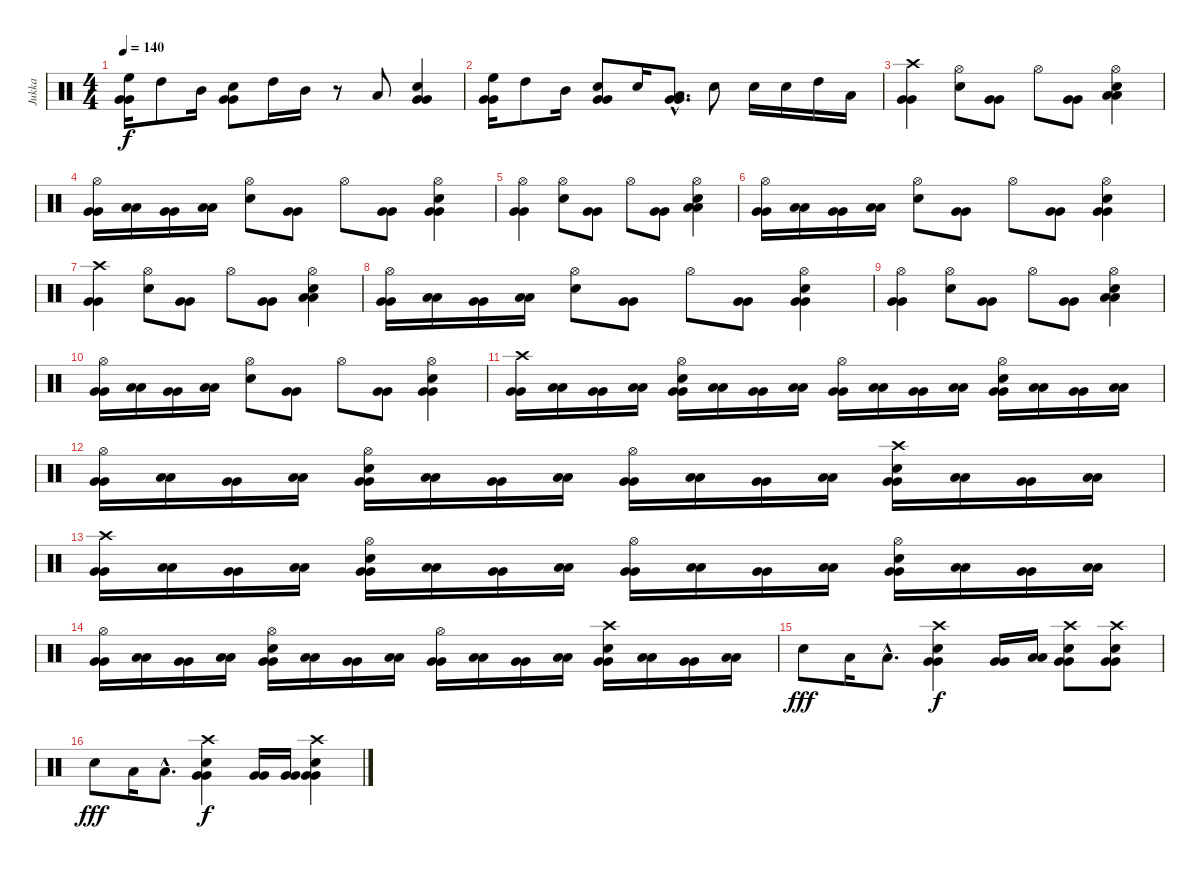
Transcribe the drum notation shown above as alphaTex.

\track ("Jukka" "Jukka") {instrument percussion}
\staff {score}
\articulation defaults
\ts (4 4)
\tempo 140
\clef neutral
\ks c
("High Floor Tom (hit)" "Very Low Tom (hit)" "Very Low Tom (hit)").16{dy f} "High Tom (hit)".8 "Mid Tom (hit)".16 ("Electric Snare (hit)" "Very Low Tom (hit)" "Very Low Tom (hit)").8 "High Tom (hit)".16 "Mid Tom (hit)".16 r.8 "Low Tom (hit)".8 ("Electric Snare (hit)" "Very Low Tom (hit)" "Very Low Tom (hit)").4 |
("High Floor Tom (hit)" "Very Low Tom (hit)" "Very Low Tom (hit)").16 "High Tom (hit)".8 "Mid Tom (hit)".16 ("Electric Snare (hit)" "Very Low Tom (hit)" "Very Low Tom (hit)").8 "Electric Snare (hit)".16 ("Low Tom (hit)"{hac} "Very Low Tom (hit)"{hac} "Very Low Tom (hit)"{hac}).8{d} "Electric Snare (hit)".8 "Electric Snare (hit)".16 "Electric Snare (hit)".16 "High Tom (hit)".16 "Low Tom (hit)".16 |
("Crash high (hit)" "Very Low Tom (hit)" "Very Low Tom (hit)").4 ("Hi-Hat (open)" "Electric Snare (hit)").8 ("Very Low Tom (hit)" "Very Low Tom (hit)").8 "Hi-Hat (open)".8 ("Very Low Tom (hit)" "Very Low Tom (hit)").8 ("Hi-Hat (open)" "Electric Snare (hit)" "Low Floor Tom (hit)" "Low Floor Tom (hit)").4 |
("Hi-Hat (open)" "Very Low Tom (hit)" "Very Low Tom (hit)").16 ("Low Floor Tom (hit)" "Low Floor Tom (hit)").16 ("Very Low Tom (hit)" "Very Low Tom (hit)").16 ("Low Floor Tom (hit)" "Low Floor Tom (hit)").16 ("Hi-Hat (open)" "Electric Snare (hit)").8 ("Very Low Tom (hit)" "Very Low Tom (hit)").8 "Hi-Hat (open)".8 ("Very Low Tom (hit)" "Very Low Tom (hit)").8 ("Hi-Hat (open)" "Electric Snare (hit)" "Very Low Tom (hit)" "Very Low Tom (hit)").4 |
("Hi-Hat (open)" "Very Low Tom (hit)" "Very Low Tom (hit)").4 ("Hi-Hat (open)" "Electric Snare (hit)").8 ("Very Low Tom (hit)" "Very Low Tom (hit)").8 "Hi-Hat (open)".8 ("Very Low Tom (hit)" "Very Low Tom (hit)").8 ("Hi-Hat (open)" "Electric Snare (hit)" "Low Floor Tom (hit)" "Low Floor Tom (hit)").4 |
("Hi-Hat (open)" "Very Low Tom (hit)" "Very Low Tom (hit)").16 ("Low Floor Tom (hit)" "Low Floor Tom (hit)").16 ("Very Low Tom (hit)" "Very Low Tom (hit)").16 ("Low Floor Tom (hit)" "Low Floor Tom (hit)").16 ("Hi-Hat (open)" "Electric Snare (hit)").8 ("Very Low Tom (hit)" "Very Low Tom (hit)").8 "Hi-Hat (open)".8 ("Very Low Tom (hit)" "Very Low Tom (hit)").8 ("Hi-Hat (open)" "Electric Snare (hit)" "Very Low Tom (hit)" "Very Low Tom (hit)").4 |
("Crash high (hit)" "Very Low Tom (hit)" "Very Low Tom (hit)").4 ("Hi-Hat (open)" "Electric Snare (hit)").8 ("Very Low Tom (hit)" "Very Low Tom (hit)").8 "Hi-Hat (open)".8 ("Very Low Tom (hit)" "Very Low Tom (hit)").8 ("Hi-Hat (open)" "Electric Snare (hit)" "Low Floor Tom (hit)" "Low Floor Tom (hit)").4 |
("Hi-Hat (open)" "Very Low Tom (hit)" "Very Low Tom (hit)").16 ("Low Floor Tom (hit)" "Low Floor Tom (hit)").16 ("Very Low Tom (hit)" "Very Low Tom (hit)").16 ("Low Floor Tom (hit)" "Low Floor Tom (hit)").16 ("Hi-Hat (open)" "Electric Snare (hit)").8 ("Very Low Tom (hit)" "Very Low Tom (hit)").8 "Hi-Hat (open)".8 ("Very Low Tom (hit)" "Very Low Tom (hit)").8 ("Hi-Hat (open)" "Electric Snare (hit)" "Very Low Tom (hit)" "Very Low Tom (hit)").4 |
("Hi-Hat (open)" "Very Low Tom (hit)" "Very Low Tom (hit)").4 ("Hi-Hat (open)" "Electric Snare (hit)").8 ("Very Low Tom (hit)" "Very Low Tom (hit)").8 "Hi-Hat (open)".8 ("Very Low Tom (hit)" "Very Low Tom (hit)").8 ("Hi-Hat (open)" "Electric Snare (hit)" "Low Floor Tom (hit)" "Low Floor Tom (hit)").4 |
("Hi-Hat (open)" "Very Low Tom (hit)" "Very Low Tom (hit)").16 ("Low Floor Tom (hit)" "Low Floor Tom (hit)").16 ("Very Low Tom (hit)" "Very Low Tom (hit)").16 ("Low Floor Tom (hit)" "Low Floor Tom (hit)").16 ("Hi-Hat (open)" "Electric Snare (hit)").8 ("Very Low Tom (hit)" "Very Low Tom (hit)").8 "Hi-Hat (open)".8 ("Very Low Tom (hit)" "Very Low Tom (hit)").8 ("Hi-Hat (open)" "Electric Snare (hit)" "Very Low Tom (hit)" "Very Low Tom (hit)").4 |
("Crash high (hit)" "Very Low Tom (hit)" "Very Low Tom (hit)").16 ("Low Floor Tom (hit)" "Low Floor Tom (hit)").16 ("Very Low Tom (hit)" "Very Low Tom (hit)").16 ("Low Floor Tom (hit)" "Low Floor Tom (hit)").16 ("Hi-Hat (open)" "Electric Snare (hit)" "Very Low Tom (hit)" "Very Low Tom (hit)").16 ("Low Floor Tom (hit)" "Low Floor Tom (hit)").16 ("Very Low Tom (hit)" "Very Low Tom (hit)").16 ("Low Floor Tom (hit)" "Low Floor Tom (hit)").16 ("Hi-Hat (open)" "Very Low Tom (hit)" "Very Low Tom (hit)").16 ("Low Floor Tom (hit)" "Low Floor Tom (hit)").16 ("Very Low Tom (hit)" "Very Low Tom (hit)").16 ("Low Floor Tom (hit)" "Low Floor Tom (hit)").16 ("Hi-Hat (open)" "Electric Snare (hit)" "Very Low Tom (hit)" "Very Low Tom (hit)").16 ("Low Floor Tom (hit)" "Low Floor Tom (hit)").16 ("Very Low Tom (hit)" "Very Low Tom (hit)").16 ("Low Floor Tom (hit)" "Low Floor Tom (hit)").16 |
("Hi-Hat (open)" "Very Low Tom (hit)" "Very Low Tom (hit)").16 ("Low Floor Tom (hit)" "Low Floor Tom (hit)").16 ("Very Low Tom (hit)" "Very Low Tom (hit)").16 ("Low Floor Tom (hit)" "Low Floor Tom (hit)").16 ("Hi-Hat (open)" "Electric Snare (hit)" "Very Low Tom (hit)" "Very Low Tom (hit)").16 ("Low Floor Tom (hit)" "Low Floor Tom (hit)").16 ("Very Low Tom (hit)" "Very Low Tom (hit)").16 ("Low Floor Tom (hit)" "Low Floor Tom (hit)").16 ("Hi-Hat (open)" "Very Low Tom (hit)" "Very Low Tom (hit)").16 ("Low Floor Tom (hit)" "Low Floor Tom (hit)").16 ("Very Low Tom (hit)" "Very Low Tom (hit)").16 ("Low Floor Tom (hit)" "Low Floor Tom (hit)").16 ("Crash high (hit)" "Electric Snare (hit)" "Very Low Tom (hit)" "Very Low Tom (hit)").16 ("Low Floor Tom (hit)" "Low Floor Tom (hit)").16 ("Very Low Tom (hit)" "Very Low Tom (hit)").16 ("Low Floor Tom (hit)" "Low Floor Tom (hit)").16 |
("Crash high (hit)" "Very Low Tom (hit)" "Very Low Tom (hit)").16 ("Low Floor Tom (hit)" "Low Floor Tom (hit)").16 ("Very Low Tom (hit)" "Very Low Tom (hit)").16 ("Low Floor Tom (hit)" "Low Floor Tom (hit)").16 ("Hi-Hat (open)" "Electric Snare (hit)" "Very Low Tom (hit)" "Very Low Tom (hit)").16 ("Low Floor Tom (hit)" "Low Floor Tom (hit)").16 ("Very Low Tom (hit)" "Very Low Tom (hit)").16 ("Low Floor Tom (hit)" "Low Floor Tom (hit)").16 ("Hi-Hat (open)" "Very Low Tom (hit)" "Very Low Tom (hit)").16 ("Low Floor Tom (hit)" "Low Floor Tom (hit)").16 ("Very Low Tom (hit)" "Very Low Tom (hit)").16 ("Low Floor Tom (hit)" "Low Floor Tom (hit)").16 ("Hi-Hat (open)" "Electric Snare (hit)" "Very Low Tom (hit)" "Very Low Tom (hit)").16 ("Low Floor Tom (hit)" "Low Floor Tom (hit)").16 ("Very Low Tom (hit)" "Very Low Tom (hit)").16 ("Low Floor Tom (hit)" "Low Floor Tom (hit)").16 |
("Hi-Hat (open)" "Very Low Tom (hit)" "Very Low Tom (hit)").16 ("Low Floor Tom (hit)" "Low Floor Tom (hit)").16 ("Very Low Tom (hit)" "Very Low Tom (hit)").16 ("Low Floor Tom (hit)" "Low Floor Tom (hit)").16 ("Hi-Hat (open)" "Electric Snare (hit)" "Very Low Tom (hit)" "Very Low Tom (hit)").16 ("Low Floor Tom (hit)" "Low Floor Tom (hit)").16 ("Very Low Tom (hit)" "Very Low Tom (hit)").16 ("Low Floor Tom (hit)" "Low Floor Tom (hit)").16 ("Hi-Hat (open)" "Very Low Tom (hit)" "Very Low Tom (hit)").16 ("Low Floor Tom (hit)" "Low Floor Tom (hit)").16 ("Very Low Tom (hit)" "Very Low Tom (hit)").16 ("Low Floor Tom (hit)" "Low Floor Tom (hit)").16 ("Crash high (hit)" "Electric Snare (hit)" "Very Low Tom (hit)" "Very Low Tom (hit)").16 ("Low Floor Tom (hit)" "Low Floor Tom (hit)").16 ("Very Low Tom (hit)" "Very Low Tom (hit)").16 ("Low Floor Tom (hit)" "Low Floor Tom (hit)").16 |
"Electric Snare (hit)".8{dy fff} "Low Tom (hit)".16 "Low Tom (hit)"{hac}.8{d} ("Crash high (hit)" "Electric Snare (hit)" "Very Low Tom (hit)" "Very Low Tom (hit)").4{dy f} ("Very Low Tom (hit)" "Very Low Tom (hit)").16 ("Low Floor Tom (hit)" "Low Floor Tom (hit)").16 ("Crash high (hit)" "Electric Snare (hit)" "Very Low Tom (hit)" "Very Low Tom (hit)").8 ("Crash high (hit)" "Electric Snare (hit)" "Very Low Tom (hit)" "Very Low Tom (hit)").8 |
"Electric Snare (hit)".8{dy fff} "Low Tom (hit)".16 "Low Tom (hit)"{hac}.8{d} ("Crash high (hit)" "Electric Snare (hit)" "Very Low Tom (hit)" "Very Low Tom (hit)").4{dy f} ("Very Low Tom (hit)" "Very Low Tom (hit)").16 ("Very Low Tom (hit)" "Very Low Tom (hit)").16 ("Crash high (hit)" "Electric Snare (hit)" "Very Low Tom (hit)" "Very Low Tom (hit)").4
